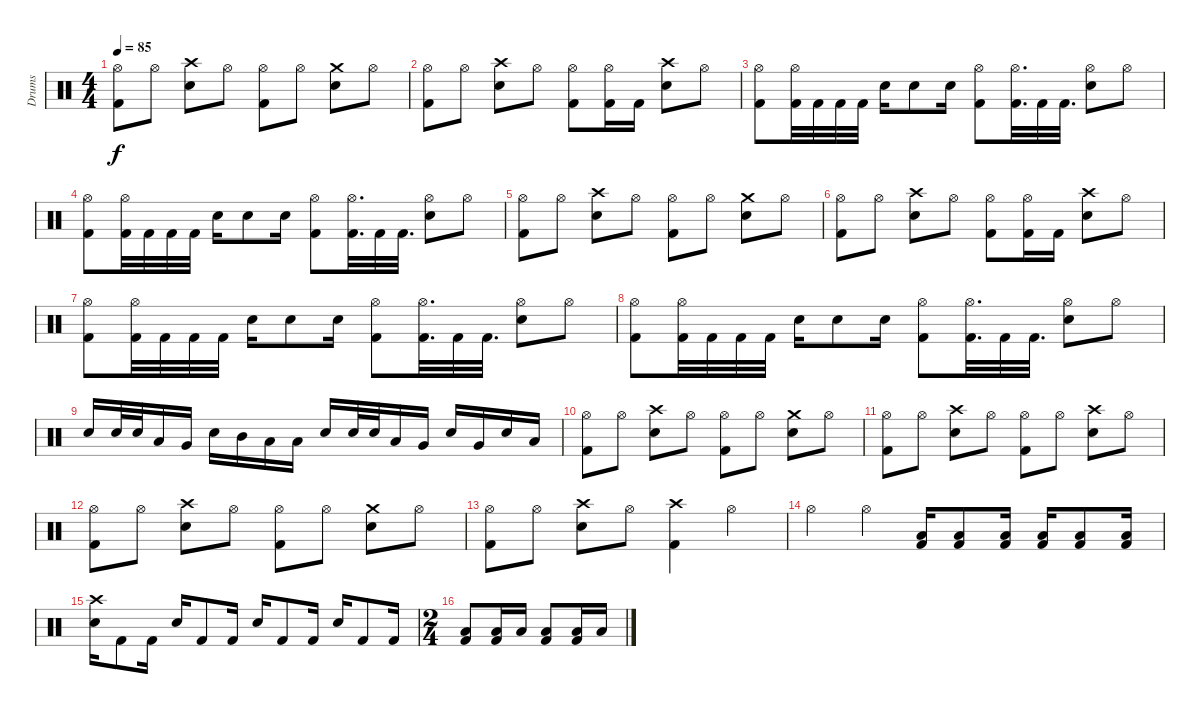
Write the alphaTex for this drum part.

\track ("Drums" "Drums") {instrument percussion}
\staff {score}
\articulation defaults
\ts (4 4)
\tempo 85
\clef neutral
\ks c
("Kick (hit) 2" "Hi-Hat (open)").8{dy f} "Hi-Hat (open)".8 ("Crash high (hit)" "Snare (hit) 2").8 "Hi-Hat (open)".8 ("Kick (hit) 2" "Hi-Hat (open)").8 "Hi-Hat (open)".8 ("Crash medium (hit)" "Snare (hit) 2").8 "Hi-Hat (open)".8 |
("Kick (hit) 2" "Hi-Hat (open)").8 "Hi-Hat (open)".8 ("Snare (hit) 2" "Crash high (hit)").8 "Hi-Hat (open)".8 ("Kick (hit) 2" "Hi-Hat (open)").8 ("Kick (hit) 2" "Hi-Hat (open)").16 "Kick (hit) 2".16 ("Crash high (hit)" "Snare (hit) 2").8 "Hi-Hat (open)".8 |
("Kick (hit) 2" "Hi-Hat (open)").8 ("Hi-Hat (open)" "Kick (hit) 2").32 "Kick (hit) 2".32 "Kick (hit) 2".32 "Kick (hit) 2".32 "Snare (hit) 2".16 "Snare (hit) 2".8 "Snare (hit) 2".16 ("Hi-Hat (open)" "Kick (hit) 2").8 ("Kick (hit) 2" "Hi-Hat (open)").32{d} "Kick (hit) 2".32 "Kick (hit) 2".32{d} ("Snare (hit) 2" "Hi-Hat (open)").8 "Hi-Hat (open)".8 |
("Kick (hit) 2" "Hi-Hat (open)").8 ("Hi-Hat (open)" "Kick (hit) 2").32 "Kick (hit) 2".32 "Kick (hit) 2".32 "Kick (hit) 2".32 "Snare (hit) 2".16 "Snare (hit) 2".8 "Snare (hit) 2".16 ("Hi-Hat (open)" "Kick (hit) 2").8 ("Kick (hit) 2" "Hi-Hat (open)").32{d} "Kick (hit) 2".32 "Kick (hit) 2".32{d} ("Snare (hit) 2" "Hi-Hat (open)").8 "Hi-Hat (open)".8 |
("Kick (hit) 2" "Hi-Hat (open)").8 "Hi-Hat (open)".8 ("Crash high (hit)" "Snare (hit) 2").8 "Hi-Hat (open)".8 ("Kick (hit) 2" "Hi-Hat (open)").8 "Hi-Hat (open)".8 ("Crash medium (hit)" "Snare (hit) 2").8 "Hi-Hat (open)".8 |
("Kick (hit) 2" "Hi-Hat (open)").8 "Hi-Hat (open)".8 ("Snare (hit) 2" "Crash high (hit)").8 "Hi-Hat (open)".8 ("Kick (hit) 2" "Hi-Hat (open)").8 ("Kick (hit) 2" "Hi-Hat (open)").16 "Kick (hit) 2".16 ("Crash high (hit)" "Snare (hit) 2").8 "Hi-Hat (open)".8 |
("Kick (hit) 2" "Hi-Hat (open)").8 ("Hi-Hat (open)" "Kick (hit) 2").32 "Kick (hit) 2".32 "Kick (hit) 2".32 "Kick (hit) 2".32 "Snare (hit) 2".16 "Snare (hit) 2".8 "Snare (hit) 2".16 ("Hi-Hat (open)" "Kick (hit) 2").8 ("Kick (hit) 2" "Hi-Hat (open)").32{d} "Kick (hit) 2".32 "Kick (hit) 2".32{d} ("Snare (hit) 2" "Hi-Hat (open)").8 "Hi-Hat (open)".8 |
("Kick (hit) 2" "Hi-Hat (open)").8 ("Hi-Hat (open)" "Kick (hit) 2").32 "Kick (hit) 2".32 "Kick (hit) 2".32 "Kick (hit) 2".32 "Snare (hit) 2".16 "Snare (hit) 2".8 "Snare (hit) 2".16 ("Hi-Hat (open)" "Kick (hit) 2").8 ("Kick (hit) 2" "Hi-Hat (open)").32{d} "Kick (hit) 2".32 "Kick (hit) 2".32{d} ("Snare (hit) 2" "Hi-Hat (open)").8 "Hi-Hat (open)".8 |
"Snare (hit) 2".16 "Snare (hit) 2".32 "Snare (hit) 2".32 "Low Tom (hit)".16 "Very Low Tom (hit)".16 "Snare (hit) 2".16 "Mid Tom (hit)".16 "Low Tom (hit)".16 "Low Floor Tom (hit)".16 "Snare (hit) 2".16 "Snare (hit) 2".32 "Snare (hit) 2".32 "Low Tom (hit)".16 "Very Low Tom (hit)".16 "Snare (hit) 2".16 "Very Low Tom (hit)".16 "Snare (hit) 2".16 "Low Floor Tom (hit)".16 |
("Kick (hit) 2" "Hi-Hat (open)").8 "Hi-Hat (open)".8 ("Crash high (hit)" "Snare (hit) 2").8 "Hi-Hat (open)".8 ("Kick (hit) 2" "Hi-Hat (open)").8 "Hi-Hat (open)".8 ("Crash medium (hit)" "Snare (hit) 2").8 "Hi-Hat (open)".8 |
("Kick (hit) 2" "Hi-Hat (open)").8 "Hi-Hat (open)".8 ("Crash high (hit)" "Snare (hit) 2").8 "Hi-Hat (open)".8 ("Kick (hit) 2" "Hi-Hat (open)").8 "Hi-Hat (open)".8 ("Crash high (hit)" "Snare (hit) 2").8 "Hi-Hat (open)".8 |
("Kick (hit) 2" "Hi-Hat (open)").8 "Hi-Hat (open)".8 ("Crash high (hit)" "Snare (hit) 2").8 "Hi-Hat (open)".8 ("Kick (hit) 2" "Hi-Hat (open)").8 "Hi-Hat (open)".8 ("Crash medium (hit)" "Snare (hit) 2").8 "Hi-Hat (open)".8 |
("Kick (hit) 2" "Hi-Hat (open)").8 "Hi-Hat (open)".8 ("Crash high (hit)" "Snare (hit) 2").8 "Hi-Hat (open)".8 ("Crash high (hit)" "Kick (hit) 2").4 "Hi-Hat (open)".4 |
"Hi-Hat (open)".4 "Hi-Hat (open)".4 ("Kick (hit) 2" "Low Floor Tom (hit)").16 ("Kick (hit) 2" "Low Floor Tom (hit)").8 ("Kick (hit) 2" "Low Floor Tom (hit)").16 ("Low Floor Tom (hit)" "Kick (hit) 2").16 ("Kick (hit) 2" "Low Floor Tom (hit)").8 ("Kick (hit) 2" "Low Floor Tom (hit)").16 |
("Snare (hit) 2" "Crash high (hit)").16 "Kick (hit) 2".8 "Kick (hit) 2".16 "Snare (hit) 2".16 "Kick (hit) 2".8 "Kick (hit) 2".16 "Snare (hit) 2".16 "Kick (hit) 2".8 "Kick (hit) 2".16 "Snare (hit) 2".16 "Kick (hit) 2".8 "Kick (hit) 2".16 |
\ts (2 4)
("Kick (hit) 2" "Low Floor Tom (hit)").8 ("Kick (hit) 2" "Low Floor Tom (hit)").16 "Low Floor Tom (hit)".16 ("Kick (hit) 2" "Low Floor Tom (hit)").8 ("Kick (hit) 2" "Low Floor Tom (hit)").16 "Low Floor Tom (hit)".16
